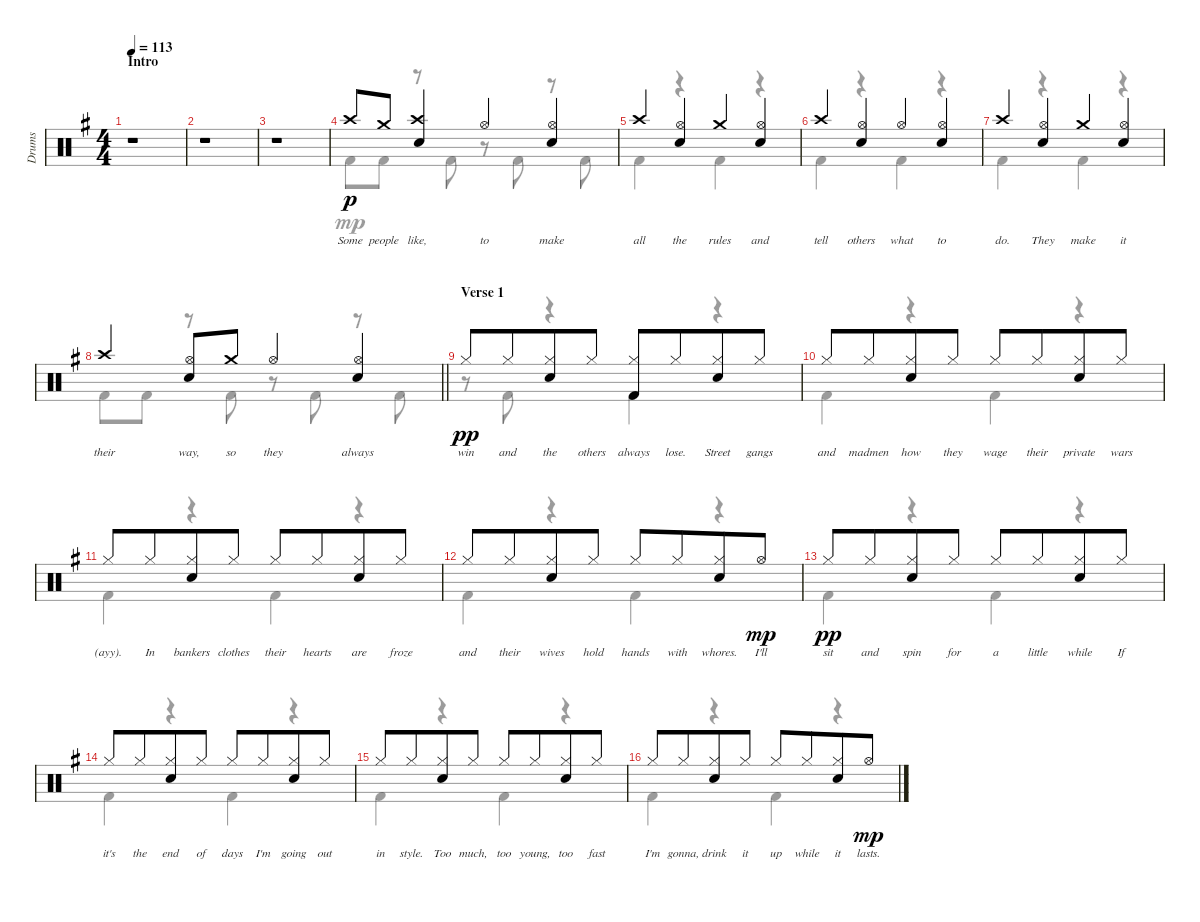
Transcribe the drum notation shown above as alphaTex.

\track ("Drums" "Drums") {instrument percussion}
\staff {score}
\articulation defaults
\voice
\ts (4 4)
\section ("" "Intro")
\tempo 113
\clef neutral
\ks g
r.1{dy p} |
r.1 |
r.1 |
"Crash high (hit)".8{lyrics (0 "Some") lyrics (1 "") lyrics (2 "") lyrics (3 "") lyrics (4 "")} "Crash medium (hit)".8{lyrics (0 "people") lyrics (1 "") lyrics (2 "") lyrics (3 "") lyrics (4 "")} ("Electric Snare (hit)" "Crash high (hit)").4{lyrics (0 "like,") lyrics (1 "") lyrics (2 "") lyrics (3 "") lyrics (4 "")} "Hi-Hat (open)".4{lyrics (0 "to") lyrics (1 "") lyrics (2 "") lyrics (3 "") lyrics (4 "")} ("Electric Snare (hit)" "Hi-Hat (open)").4{lyrics (0 "make") lyrics (1 "") lyrics (2 "") lyrics (3 "") lyrics (4 "")} |
"Crash high (hit)".4{lyrics (0 "all") lyrics (1 "") lyrics (2 "") lyrics (3 "") lyrics (4 "")} ("Hi-Hat (open)" "Electric Snare (hit)").4{lyrics (0 "the") lyrics (1 "") lyrics (2 "") lyrics (3 "") lyrics (4 "")} "Crash medium (hit)".4{lyrics (0 "rules") lyrics (1 "") lyrics (2 "") lyrics (3 "") lyrics (4 "")} ("Hi-Hat (open)" "Electric Snare (hit)").4{lyrics (0 "and") lyrics (1 "") lyrics (2 "") lyrics (3 "") lyrics (4 "")} |
"Crash high (hit)".4{lyrics (0 "tell") lyrics (1 "") lyrics (2 "") lyrics (3 "") lyrics (4 "")} ("Hi-Hat (open)" "Electric Snare (hit)").4{lyrics (0 "others") lyrics (1 "") lyrics (2 "") lyrics (3 "") lyrics (4 "")} "Hi-Hat (open)".4{lyrics (0 "what") lyrics (1 "") lyrics (2 "") lyrics (3 "") lyrics (4 "")} ("Hi-Hat (open)" "Electric Snare (hit)").4{lyrics (0 "to") lyrics (1 "") lyrics (2 "") lyrics (3 "") lyrics (4 "")} |
"Crash high (hit)".4{lyrics (0 "do.") lyrics (1 "") lyrics (2 "") lyrics (3 "") lyrics (4 "")} ("Hi-Hat (open)" "Electric Snare (hit)").4{lyrics (0 "They") lyrics (1 "") lyrics (2 "") lyrics (3 "") lyrics (4 "")} "Crash medium (hit)".4{lyrics (0 "make") lyrics (1 "") lyrics (2 "") lyrics (3 "") lyrics (4 "")} ("Hi-Hat (open)" "Electric Snare (hit)").4{lyrics (0 "it") lyrics (1 "") lyrics (2 "") lyrics (3 "") lyrics (4 "")} |
\barLineRight lightlight "Crash high (hit)".4{lyrics (0 "their") lyrics (1 "") lyrics (2 "") lyrics (3 "") lyrics (4 "")}
("Electric Snare (hit)" "Hi-Hat (open)").8{lyrics (0 "way,") lyrics (1 "") lyrics (2 "") lyrics (3 "") lyrics (4 "")} "Crash medium (hit)".8{lyrics (0 "so") lyrics (1 "") lyrics (2 "") lyrics (3 "") lyrics (4 "")} "Hi-Hat (open)".4{lyrics (0 "they") lyrics (1 "") lyrics (2 "") lyrics (3 "") lyrics (4 "")} ("Electric Snare (hit)" "Hi-Hat (open)").4{lyrics (0 "always") lyrics (1 "") lyrics (2 "") lyrics (3 "") lyrics (4 "")} |
\section ("" "Verse 1")
"Hi-Hat (closed)".8{lyrics (0 "win") lyrics (1 "") lyrics (2 "") lyrics (3 "") lyrics (4 "") dy pp} "Hi-Hat (closed)".8{lyrics (0 "and") lyrics (1 "") lyrics (2 "") lyrics (3 "") lyrics (4 "") beam merge} ("Hi-Hat (closed)" "Electric Snare (hit)").8{lyrics (0 "the") lyrics (1 "") lyrics (2 "") lyrics (3 "") lyrics (4 "")} "Hi-Hat (closed)".8{lyrics (0 "others") lyrics (1 "") lyrics (2 "") lyrics (3 "") lyrics (4 "")} ("Hi-Hat (closed)" "Kick (hit) 2").8{lyrics (0 "always") lyrics (1 "") lyrics (2 "") lyrics (3 "") lyrics (4 "")} "Hi-Hat (closed)".8{lyrics (0 "lose.") lyrics (1 "") lyrics (2 "") lyrics (3 "") lyrics (4 "") beam merge} ("Hi-Hat (closed)" "Electric Snare (hit)").8{lyrics (0 "Street") lyrics (1 "") lyrics (2 "") lyrics (3 "") lyrics (4 "")} "Hi-Hat (closed)".8{lyrics (0 "gangs") lyrics (1 "") lyrics (2 "") lyrics (3 "") lyrics (4 "")} |
"Hi-Hat (closed)".8{lyrics (0 "and") lyrics (1 "") lyrics (2 "") lyrics (3 "") lyrics (4 "")} "Hi-Hat (closed)".8{lyrics (0 "madmen") lyrics (1 "") lyrics (2 "") lyrics (3 "") lyrics (4 "") beam merge} ("Hi-Hat (closed)" "Electric Snare (hit)").8{lyrics (0 "how") lyrics (1 "") lyrics (2 "") lyrics (3 "") lyrics (4 "")} "Hi-Hat (closed)".8{lyrics (0 "they") lyrics (1 "") lyrics (2 "") lyrics (3 "") lyrics (4 "")} "Hi-Hat (closed)".8{lyrics (0 "wage") lyrics (1 "") lyrics (2 "") lyrics (3 "") lyrics (4 "")} "Hi-Hat (closed)".8{lyrics (0 "their") lyrics (1 "") lyrics (2 "") lyrics (3 "") lyrics (4 "") beam merge} ("Hi-Hat (closed)" "Electric Snare (hit)").8{lyrics (0 "private") lyrics (1 "") lyrics (2 "") lyrics (3 "") lyrics (4 "")} "Hi-Hat (closed)".8{lyrics (0 "wars") lyrics (1 "") lyrics (2 "") lyrics (3 "") lyrics (4 "")} |
"Hi-Hat (closed)".8{lyrics (0 "(ayy).") lyrics (1 "") lyrics (2 "") lyrics (3 "") lyrics (4 "")} "Hi-Hat (closed)".8{lyrics (0 "In") lyrics (1 "") lyrics (2 "") lyrics (3 "") lyrics (4 "") beam merge} ("Hi-Hat (closed)" "Electric Snare (hit)").8{lyrics (0 "bankers") lyrics (1 "") lyrics (2 "") lyrics (3 "") lyrics (4 "")} "Hi-Hat (closed)".8{lyrics (0 "clothes") lyrics (1 "") lyrics (2 "") lyrics (3 "") lyrics (4 "")} "Hi-Hat (closed)".8{lyrics (0 "their") lyrics (1 "") lyrics (2 "") lyrics (3 "") lyrics (4 "")} "Hi-Hat (closed)".8{lyrics (0 "hearts") lyrics (1 "") lyrics (2 "") lyrics (3 "") lyrics (4 "") beam merge} ("Hi-Hat (closed)" "Electric Snare (hit)").8{lyrics (0 "are") lyrics (1 "") lyrics (2 "") lyrics (3 "") lyrics (4 "")} "Hi-Hat (closed)".8{lyrics (0 "froze") lyrics (1 "") lyrics (2 "") lyrics (3 "") lyrics (4 "")} |
"Hi-Hat (closed)".8{lyrics (0 "and") lyrics (1 "") lyrics (2 "") lyrics (3 "") lyrics (4 "")} "Hi-Hat (closed)".8{lyrics (0 "their") lyrics (1 "") lyrics (2 "") lyrics (3 "") lyrics (4 "") beam merge} ("Hi-Hat (closed)" "Electric Snare (hit)").8{lyrics (0 "wives") lyrics (1 "") lyrics (2 "") lyrics (3 "") lyrics (4 "")} "Hi-Hat (closed)".8{lyrics (0 "hold") lyrics (1 "") lyrics (2 "") lyrics (3 "") lyrics (4 "")} "Hi-Hat (closed)".8{lyrics (0 "hands") lyrics (1 "") lyrics (2 "") lyrics (3 "") lyrics (4 "")} "Hi-Hat (closed)".8{lyrics (0 "with") lyrics (1 "") lyrics (2 "") lyrics (3 "") lyrics (4 "") beam merge} ("Hi-Hat (closed)" "Electric Snare (hit)").8{lyrics (0 "whores.") lyrics (1 "") lyrics (2 "") lyrics (3 "") lyrics (4 "")} "Hi-Hat (open)".8{lyrics (0 "I'll") lyrics (1 "") lyrics (2 "") lyrics (3 "") lyrics (4 "") dy mp} |
"Hi-Hat (closed)".8{lyrics (0 "sit") lyrics (1 "") lyrics (2 "") lyrics (3 "") lyrics (4 "") dy pp} "Hi-Hat (closed)".8{lyrics (0 "and") lyrics (1 "") lyrics (2 "") lyrics (3 "") lyrics (4 "") beam merge} ("Hi-Hat (closed)" "Electric Snare (hit)").8{lyrics (0 "spin") lyrics (1 "") lyrics (2 "") lyrics (3 "") lyrics (4 "")} "Hi-Hat (closed)".8{lyrics (0 "for") lyrics (1 "") lyrics (2 "") lyrics (3 "") lyrics (4 "")} "Hi-Hat (closed)".8{lyrics (0 "a") lyrics (1 "") lyrics (2 "") lyrics (3 "") lyrics (4 "")} "Hi-Hat (closed)".8{lyrics (0 "little") lyrics (1 "") lyrics (2 "") lyrics (3 "") lyrics (4 "") beam merge} ("Hi-Hat (closed)" "Electric Snare (hit)").8{lyrics (0 "while") lyrics (1 "") lyrics (2 "") lyrics (3 "") lyrics (4 "")} "Hi-Hat (closed)".8{lyrics (0 "If") lyrics (1 "") lyrics (2 "") lyrics (3 "") lyrics (4 "")} |
"Hi-Hat (closed)".8{lyrics (0 "it's") lyrics (1 "") lyrics (2 "") lyrics (3 "") lyrics (4 "")} "Hi-Hat (closed)".8{lyrics (0 "the") lyrics (1 "") lyrics (2 "") lyrics (3 "") lyrics (4 "") beam merge} ("Hi-Hat (closed)" "Electric Snare (hit)").8{lyrics (0 "end") lyrics (1 "") lyrics (2 "") lyrics (3 "") lyrics (4 "")} "Hi-Hat (closed)".8{lyrics (0 "of") lyrics (1 "") lyrics (2 "") lyrics (3 "") lyrics (4 "")} "Hi-Hat (closed)".8{lyrics (0 "days") lyrics (1 "") lyrics (2 "") lyrics (3 "") lyrics (4 "")} "Hi-Hat (closed)".8{lyrics (0 "I'm") lyrics (1 "") lyrics (2 "") lyrics (3 "") lyrics (4 "") beam merge} ("Hi-Hat (closed)" "Electric Snare (hit)").8{lyrics (0 "going") lyrics (1 "") lyrics (2 "") lyrics (3 "") lyrics (4 "")} "Hi-Hat (closed)".8{lyrics (0 "out") lyrics (1 "") lyrics (2 "") lyrics (3 "") lyrics (4 "")} |
"Hi-Hat (closed)".8{lyrics (0 "in") lyrics (1 "") lyrics (2 "") lyrics (3 "") lyrics (4 "")} "Hi-Hat (closed)".8{lyrics (0 "style.") lyrics (1 "") lyrics (2 "") lyrics (3 "") lyrics (4 "") beam merge} ("Hi-Hat (closed)" "Electric Snare (hit)").8{lyrics (0 "Too") lyrics (1 "") lyrics (2 "") lyrics (3 "") lyrics (4 "")} "Hi-Hat (closed)".8{lyrics (0 "much,") lyrics (1 "") lyrics (2 "") lyrics (3 "") lyrics (4 "")} "Hi-Hat (closed)".8{lyrics (0 "too") lyrics (1 "") lyrics (2 "") lyrics (3 "") lyrics (4 "")} "Hi-Hat (closed)".8{lyrics (0 "young,") lyrics (1 "") lyrics (2 "") lyrics (3 "") lyrics (4 "") beam merge} ("Hi-Hat (closed)" "Electric Snare (hit)").8{lyrics (0 "too") lyrics (1 "") lyrics (2 "") lyrics (3 "") lyrics (4 "")} "Hi-Hat (closed)".8{lyrics (0 "fast") lyrics (1 "") lyrics (2 "") lyrics (3 "") lyrics (4 "")} |
"Hi-Hat (closed)".8{lyrics (0 "I'm") lyrics (1 "") lyrics (2 "") lyrics (3 "") lyrics (4 "")} "Hi-Hat (closed)".8{lyrics (0 "gonna,") lyrics (1 "") lyrics (2 "") lyrics (3 "") lyrics (4 "") beam merge} ("Hi-Hat (closed)" "Electric Snare (hit)").8{lyrics (0 "drink") lyrics (1 "") lyrics (2 "") lyrics (3 "") lyrics (4 "")} "Hi-Hat (closed)".8{lyrics (0 "it") lyrics (1 "") lyrics (2 "") lyrics (3 "") lyrics (4 "")} "Hi-Hat (closed)".8{lyrics (0 "up") lyrics (1 "") lyrics (2 "") lyrics (3 "") lyrics (4 "")} "Hi-Hat (closed)".8{lyrics (0 "while") lyrics (1 "") lyrics (2 "") lyrics (3 "") lyrics (4 "") beam merge} ("Hi-Hat (closed)" "Electric Snare (hit)").8{lyrics (0 "it") lyrics (1 "") lyrics (2 "") lyrics (3 "") lyrics (4 "")} "Hi-Hat (open)".8{lyrics (0 "lasts.") lyrics (1 "") lyrics (2 "") lyrics (3 "") lyrics (4 "") dy mp}
\voice
\clef neutral
\ottava regular
\simile none
\ks g
|
|
|
"Kick (hit) 2".8 "Kick (hit) 2".8 r.8 "Kick (hit) 2".8 r.8 "Kick (hit) 2".8 r.8 "Kick (hit) 2".8 |
"Kick (hit) 2".4 r.4 "Kick (hit) 2".4 r.4 |
"Kick (hit) 2".4 r.4 "Kick (hit) 2".4 r.4 |
"Kick (hit) 2".4 r.4 "Kick (hit) 2".4 r.4 |
\barLineRight lightlight "Kick (hit) 2".8 "Kick (hit) 2".8
r.8 "Kick (hit) 2".8 r.8 "Kick (hit) 2".8 r.8 "Kick (hit) 2".8 |
r.8 "Kick (hit) 2".8 r.4 "Kick (hit) 2".4 r.4 |
"Kick (hit) 2".4 r.4 "Kick (hit) 2".4 r.4 |
"Kick (hit) 2".4 r.4 "Kick (hit) 2".4 r.4 |
"Kick (hit) 2".4 r.4 "Kick (hit) 2".4 r.4 |
"Kick (hit) 2".4 r.4 "Kick (hit) 2".4 r.4 |
"Kick (hit) 2".4 r.4 "Kick (hit) 2".4 r.4 |
"Kick (hit) 2".4 r.4 "Kick (hit) 2".4 r.4 |
"Kick (hit) 2".4 r.4 "Kick (hit) 2".4 r.4
